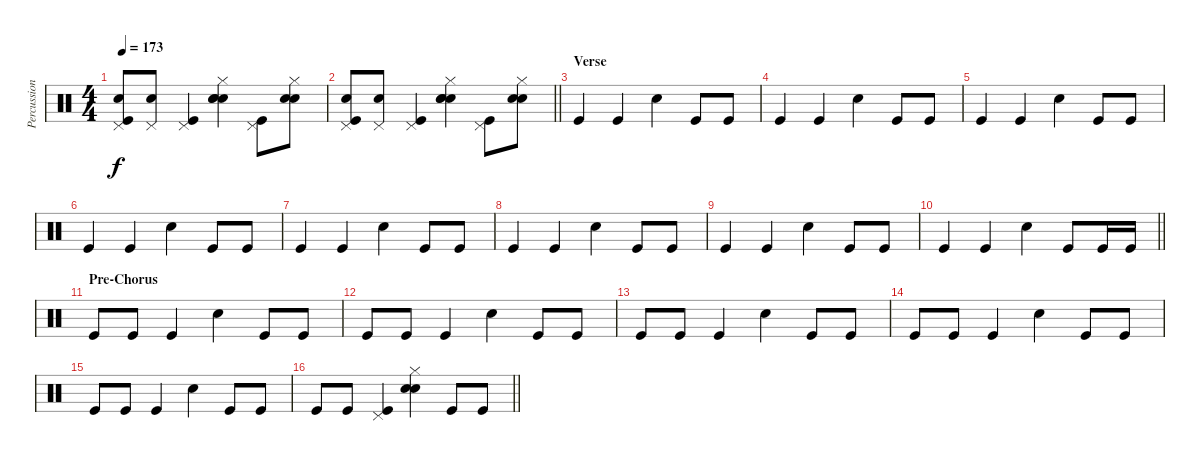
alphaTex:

\track ("Percussion" "Percussion") {instrument percussion}
\staff {score}
\articulation defaults
\ts (4 4)
\tempo 173
\clef neutral
\ks c
("Hand Clap (hit)" "Pedal Hi-Hat (hit)" "Kick (hit)").8{dy f} ("Pedal Hi-Hat (hit)" "Electric Snare (hit)").8 ("Pedal Hi-Hat (hit)" "Kick (hit)").4 ("Hand Clap (hit)" "Hand Clap (hit)" "Hi-Hat (closed)" "Electric Snare (hit)").4 ("Pedal Hi-Hat (hit)" "Kick (hit)").8 ("Hand Clap (hit)" "Hi-Hat (closed)" "Electric Snare (hit)").8 |
\barLineRight lightlight
("Hand Clap (hit)" "Pedal Hi-Hat (hit)" "Kick (hit)").8 ("Pedal Hi-Hat (hit)" "Electric Snare (hit)").8 ("Pedal Hi-Hat (hit)" "Kick (hit)").4 ("Hand Clap (hit)" "Hand Clap (hit)" "Hi-Hat (closed)" "Electric Snare (hit)").4 ("Pedal Hi-Hat (hit)" "Kick (hit)").8 ("Hand Clap (hit)" "Hi-Hat (closed)" "Electric Snare (hit)").8 |
\section ("" "Verse")
"Kick (hit)".4 "Kick (hit)".4 "Hand Clap (hit)".4 "Kick (hit)".8 "Kick (hit)".8 |
"Kick (hit)".4 "Kick (hit)".4 "Hand Clap (hit)".4 "Kick (hit)".8 "Kick (hit)".8 |
"Kick (hit)".4 "Kick (hit)".4 "Hand Clap (hit)".4 "Kick (hit)".8 "Kick (hit)".8 |
"Kick (hit)".4 "Kick (hit)".4 "Hand Clap (hit)".4 "Kick (hit)".8 "Kick (hit)".8 |
"Kick (hit)".4 "Kick (hit)".4 "Hand Clap (hit)".4 "Kick (hit)".8 "Kick (hit)".8 |
"Kick (hit)".4 "Kick (hit)".4 "Hand Clap (hit)".4 "Kick (hit)".8 "Kick (hit)".8 |
"Kick (hit)".4 "Kick (hit)".4 "Hand Clap (hit)".4 "Kick (hit)".8 "Kick (hit)".8 |
\barLineRight lightlight "Kick (hit)".4 "Kick (hit)".4 "Hand Clap (hit)".4 "Kick (hit)".8 "Kick (hit)".16 "Kick (hit)".16
|
\section ("" "Pre-Chorus")
"Kick (hit)".8 "Kick (hit)".8 "Kick (hit)".4 "Hand Clap (hit)".4 "Kick (hit)".8 "Kick (hit)".8 |
"Kick (hit)".8 "Kick (hit)".8 "Kick (hit)".4 "Hand Clap (hit)".4 "Kick (hit)".8 "Kick (hit)".8 |
"Kick (hit)".8 "Kick (hit)".8 "Kick (hit)".4 "Hand Clap (hit)".4 "Kick (hit)".8 "Kick (hit)".8 |
"Kick (hit)".8 "Kick (hit)".8 "Kick (hit)".4 "Hand Clap (hit)".4 "Kick (hit)".8 "Kick (hit)".8 |
"Kick (hit)".8 "Kick (hit)".8 "Kick (hit)".4 "Hand Clap (hit)".4 "Kick (hit)".8 "Kick (hit)".8 |
\barLineRight lightlight "Kick (hit)".8 "Kick (hit)".8
("Pedal Hi-Hat (hit)" "Kick (hit)").4 ("Hand Clap (hit)" "Hi-Hat (closed)" "Electric Snare (hit)").4 "Kick (hit)".8 "Kick (hit)".8
